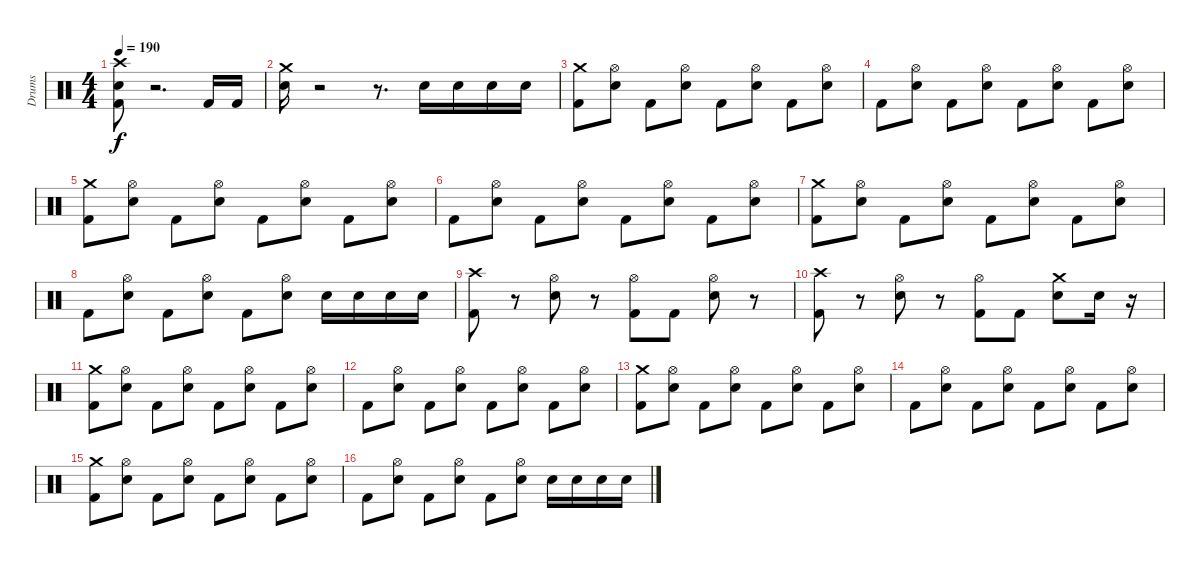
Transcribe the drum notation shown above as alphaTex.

\track ("Drums" "Drums") {instrument percussion}
\staff {score}
\articulation defaults
\ts (4 4)
\tempo 190
\clef neutral
\ks c
("Crash high (hit)" "Kick (hit) 2" "Electric Snare (hit)").8{dy f} r.2{d} "Kick (hit) 2".16 "Kick (hit) 2".16 |
("Crash medium (hit)" "Electric Snare (hit)").16 r.2 r.8{d} "Electric Snare (hit)".16 "Electric Snare (hit)".16 "Electric Snare (hit)".16 "Electric Snare (hit)".16 |
("Kick (hit) 2" "Crash medium (hit)").8 ("Hi-Hat (open)" "Electric Snare (hit)").8 "Kick (hit) 2".8 ("Hi-Hat (open)" "Electric Snare (hit)").8 "Kick (hit) 2".8 ("Hi-Hat (open)" "Electric Snare (hit)").8 "Kick (hit) 2".8 ("Hi-Hat (open)" "Electric Snare (hit)").8 |
"Kick (hit) 2".8 ("Hi-Hat (open)" "Electric Snare (hit)").8 "Kick (hit) 2".8 ("Hi-Hat (open)" "Electric Snare (hit)").8 "Kick (hit) 2".8 ("Hi-Hat (open)" "Electric Snare (hit)").8 "Kick (hit) 2".8 ("Hi-Hat (open)" "Electric Snare (hit)").8 |
("Kick (hit) 2" "Crash medium (hit)").8 ("Hi-Hat (open)" "Electric Snare (hit)").8 "Kick (hit) 2".8 ("Hi-Hat (open)" "Electric Snare (hit)").8 "Kick (hit) 2".8 ("Hi-Hat (open)" "Electric Snare (hit)").8 "Kick (hit) 2".8 ("Hi-Hat (open)" "Electric Snare (hit)").8 |
"Kick (hit) 2".8 ("Hi-Hat (open)" "Electric Snare (hit)").8 "Kick (hit) 2".8 ("Hi-Hat (open)" "Electric Snare (hit)").8 "Kick (hit) 2".8 ("Hi-Hat (open)" "Electric Snare (hit)").8 "Kick (hit) 2".8 ("Hi-Hat (open)" "Electric Snare (hit)").8 |
("Kick (hit) 2" "Crash medium (hit)").8 ("Hi-Hat (open)" "Electric Snare (hit)").8 "Kick (hit) 2".8 ("Hi-Hat (open)" "Electric Snare (hit)").8 "Kick (hit) 2".8 ("Hi-Hat (open)" "Electric Snare (hit)").8 "Kick (hit) 2".8 ("Hi-Hat (open)" "Electric Snare (hit)").8 |
"Kick (hit) 2".8 ("Hi-Hat (open)" "Electric Snare (hit)").8 "Kick (hit) 2".8 ("Hi-Hat (open)" "Electric Snare (hit)").8 "Kick (hit) 2".8 ("Hi-Hat (open)" "Electric Snare (hit)").8 "Electric Snare (hit)".16 "Electric Snare (hit)".16 "Electric Snare (hit)".16 "Electric Snare (hit)".16 |
("Kick (hit) 2" "Crash high (hit)").8 r.8 ("Electric Snare (hit)" "Hi-Hat (open)").8 r.8 ("Kick (hit) 2" "Hi-Hat (open)").8 "Kick (hit) 2".8 ("Electric Snare (hit)" "Hi-Hat (open)").8 r.8 |
("Kick (hit) 2" "Crash high (hit)").8 r.8 ("Electric Snare (hit)" "Hi-Hat (open)").8 r.8 ("Kick (hit) 2" "Hi-Hat (open)").8 "Kick (hit) 2".8 ("Electric Snare (hit)" "Crash medium (hit)").8 "Electric Snare (hit)".16 r.16 |
("Kick (hit) 2" "Crash medium (hit)").8 ("Hi-Hat (open)" "Electric Snare (hit)").8 "Kick (hit) 2".8 ("Hi-Hat (open)" "Electric Snare (hit)").8 "Kick (hit) 2".8 ("Hi-Hat (open)" "Electric Snare (hit)").8 "Kick (hit) 2".8 ("Hi-Hat (open)" "Electric Snare (hit)").8 |
"Kick (hit) 2".8 ("Hi-Hat (open)" "Electric Snare (hit)").8 "Kick (hit) 2".8 ("Hi-Hat (open)" "Electric Snare (hit)").8 "Kick (hit) 2".8 ("Hi-Hat (open)" "Electric Snare (hit)").8 "Kick (hit) 2".8 ("Hi-Hat (open)" "Electric Snare (hit)").8 |
("Kick (hit) 2" "Crash medium (hit)").8 ("Hi-Hat (open)" "Electric Snare (hit)").8 "Kick (hit) 2".8 ("Hi-Hat (open)" "Electric Snare (hit)").8 "Kick (hit) 2".8 ("Hi-Hat (open)" "Electric Snare (hit)").8 "Kick (hit) 2".8 ("Hi-Hat (open)" "Electric Snare (hit)").8 |
"Kick (hit) 2".8 ("Hi-Hat (open)" "Electric Snare (hit)").8 "Kick (hit) 2".8 ("Hi-Hat (open)" "Electric Snare (hit)").8 "Kick (hit) 2".8 ("Hi-Hat (open)" "Electric Snare (hit)").8 "Kick (hit) 2".8 ("Hi-Hat (open)" "Electric Snare (hit)").8 |
("Kick (hit) 2" "Crash medium (hit)").8 ("Hi-Hat (open)" "Electric Snare (hit)").8 "Kick (hit) 2".8 ("Hi-Hat (open)" "Electric Snare (hit)").8 "Kick (hit) 2".8 ("Hi-Hat (open)" "Electric Snare (hit)").8 "Kick (hit) 2".8 ("Hi-Hat (open)" "Electric Snare (hit)").8 |
"Kick (hit) 2".8 ("Hi-Hat (open)" "Electric Snare (hit)").8 "Kick (hit) 2".8 ("Hi-Hat (open)" "Electric Snare (hit)").8 "Kick (hit) 2".8 ("Hi-Hat (open)" "Electric Snare (hit)").8 "Electric Snare (hit)".16 "Electric Snare (hit)".16 "Electric Snare (hit)".16 "Electric Snare (hit)".16
